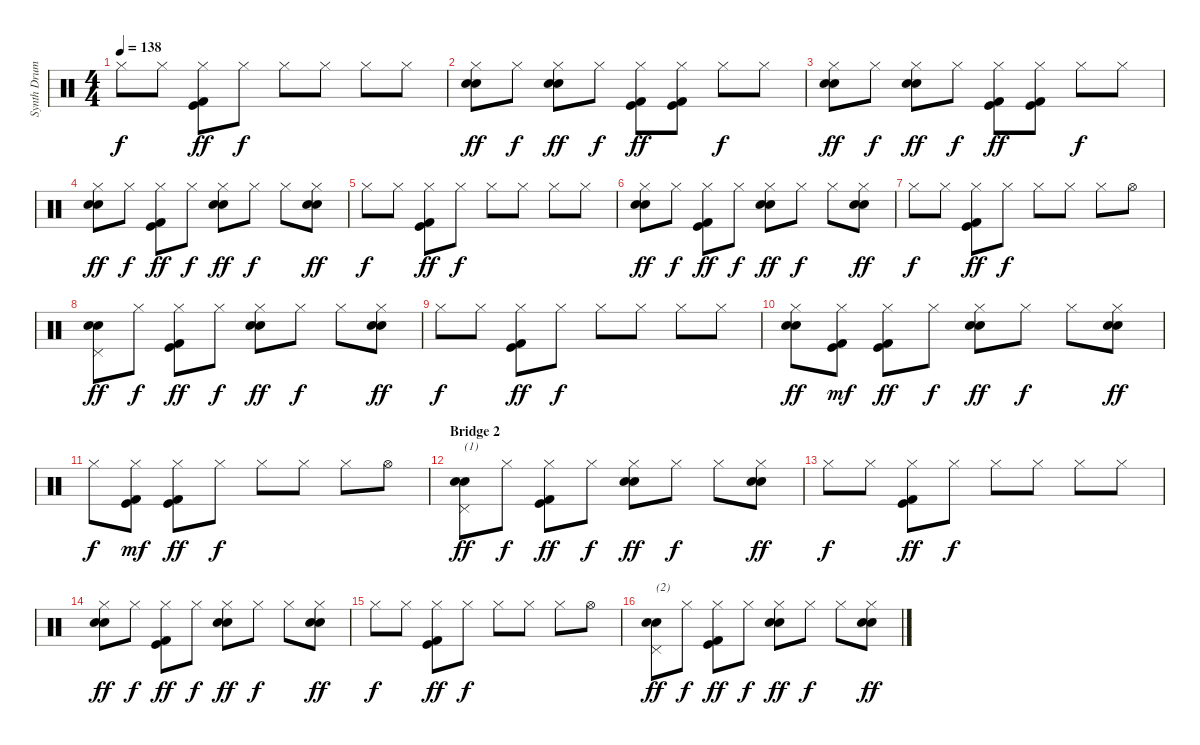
\track ("Synth Drums" "Synth Drum") {instrument percussion}
\staff {score}
\articulation defaults
\ts (4 4)
\tempo 138
\clef neutral
\ks c "Hi-Hat (closed)".8{dy f} "Hi-Hat (closed)".8
("Hi-Hat (closed)" "Kick (hit)" "Kick (hit) 2").8{dy ff} "Hi-Hat (closed)".8{dy f} "Hi-Hat (closed)".8 "Hi-Hat (closed)".8 "Hi-Hat (closed)".8 "Hi-Hat (closed)".8 |
("Hi-Hat (closed)" "Electric Snare (hit)" "Snare (hit) 2").8{dy ff} "Hi-Hat (closed)".8{dy f} ("Hi-Hat (closed)" "Electric Snare (hit)" "Snare (hit) 2").8{dy ff} "Hi-Hat (closed)".8{dy f} ("Hi-Hat (closed)" "Kick (hit)" "Kick (hit) 2").8{dy ff} ("Hi-Hat (closed)" "Kick (hit)" "Kick (hit) 2").8 "Hi-Hat (closed)".8{dy f} "Hi-Hat (closed)".8 |
("Hi-Hat (closed)" "Electric Snare (hit)" "Snare (hit) 2").8{dy ff} "Hi-Hat (closed)".8{dy f} ("Hi-Hat (closed)" "Electric Snare (hit)" "Snare (hit) 2").8{dy ff} "Hi-Hat (closed)".8{dy f} ("Hi-Hat (closed)" "Kick (hit)" "Kick (hit) 2").8{dy ff} ("Hi-Hat (closed)" "Kick (hit)" "Kick (hit) 2").8 "Hi-Hat (closed)".8{dy f} "Hi-Hat (closed)".8 |
("Hi-Hat (closed)" "Electric Snare (hit)" "Snare (hit) 2").8{dy ff} "Hi-Hat (closed)".8{dy f} ("Hi-Hat (closed)" "Kick (hit)" "Kick (hit) 2").8{dy ff} "Hi-Hat (closed)".8{dy f} ("Hi-Hat (closed)" "Electric Snare (hit)" "Snare (hit) 2").8{dy ff} "Hi-Hat (closed)".8{dy f} "Hi-Hat (closed)".8 ("Hi-Hat (closed)" "Electric Snare (hit)" "Snare (hit) 2").8{dy ff} |
"Hi-Hat (closed)".8{dy f} "Hi-Hat (closed)".8 ("Hi-Hat (closed)" "Kick (hit)" "Kick (hit) 2").8{dy ff} "Hi-Hat (closed)".8{dy f} "Hi-Hat (closed)".8 "Hi-Hat (closed)".8 "Hi-Hat (closed)".8 "Hi-Hat (closed)".8 |
("Hi-Hat (closed)" "Electric Snare (hit)" "Snare (hit) 2").8{dy ff} "Hi-Hat (closed)".8{dy f} ("Hi-Hat (closed)" "Kick (hit)" "Kick (hit) 2").8{dy ff} "Hi-Hat (closed)".8{dy f} ("Hi-Hat (closed)" "Electric Snare (hit)" "Snare (hit) 2").8{dy ff} "Hi-Hat (closed)".8{dy f} "Hi-Hat (closed)".8 ("Hi-Hat (closed)" "Electric Snare (hit)" "Snare (hit) 2").8{dy ff} |
"Hi-Hat (closed)".8{dy f} "Hi-Hat (closed)".8 ("Hi-Hat (closed)" "Kick (hit)" "Kick (hit) 2").8{dy ff} "Hi-Hat (closed)".8{dy f} "Hi-Hat (closed)".8 "Hi-Hat (closed)".8 "Hi-Hat (closed)".8 "Hi-Hat (open)".8 |
("Pedal Hi-Hat (hit)" "Electric Snare (hit)" "Snare (hit) 2").8{dy ff} "Hi-Hat (closed)".8{dy f} ("Hi-Hat (closed)" "Kick (hit)" "Kick (hit) 2").8{dy ff} "Hi-Hat (closed)".8{dy f} ("Hi-Hat (closed)" "Electric Snare (hit)" "Snare (hit) 2").8{dy ff} "Hi-Hat (closed)".8{dy f} "Hi-Hat (closed)".8 ("Hi-Hat (closed)" "Electric Snare (hit)" "Snare (hit) 2").8{dy ff} |
"Hi-Hat (closed)".8{dy f} "Hi-Hat (closed)".8 ("Hi-Hat (closed)" "Kick (hit)" "Kick (hit) 2").8{dy ff} "Hi-Hat (closed)".8{dy f} "Hi-Hat (closed)".8 "Hi-Hat (closed)".8 "Hi-Hat (closed)".8 "Hi-Hat (closed)".8 |
("Hi-Hat (closed)" "Electric Snare (hit)" "Snare (hit) 2").8{dy ff} ("Hi-Hat (closed)" "Kick (hit)" "Kick (hit) 2").8{dy mf} ("Hi-Hat (closed)" "Kick (hit)" "Kick (hit) 2").8{dy ff} "Hi-Hat (closed)".8{dy f} ("Hi-Hat (closed)" "Electric Snare (hit)" "Snare (hit) 2").8{dy ff} "Hi-Hat (closed)".8{dy f} "Hi-Hat (closed)".8 ("Hi-Hat (closed)" "Electric Snare (hit)" "Snare (hit) 2").8{dy ff} |
"Hi-Hat (closed)".8{dy f} ("Hi-Hat (closed)" "Kick (hit)" "Kick (hit) 2").8{dy mf} ("Hi-Hat (closed)" "Kick (hit)" "Kick (hit) 2").8{dy ff} "Hi-Hat (closed)".8{dy f} "Hi-Hat (closed)".8 "Hi-Hat (closed)".8 "Hi-Hat (closed)".8 "Hi-Hat (open)".8 |
\section ("" "Bridge 2")
("Pedal Hi-Hat (hit)" "Electric Snare (hit)" "Snare (hit) 2").8{txt "(1)" dy ff} "Hi-Hat (closed)".8{dy f} ("Hi-Hat (closed)" "Kick (hit)" "Kick (hit) 2").8{dy ff} "Hi-Hat (closed)".8{dy f} ("Hi-Hat (closed)" "Electric Snare (hit)" "Snare (hit) 2").8{dy ff} "Hi-Hat (closed)".8{dy f} "Hi-Hat (closed)".8 ("Hi-Hat (closed)" "Electric Snare (hit)" "Snare (hit) 2").8{dy ff} |
"Hi-Hat (closed)".8{dy f} "Hi-Hat (closed)".8 ("Hi-Hat (closed)" "Kick (hit)" "Kick (hit) 2").8{dy ff} "Hi-Hat (closed)".8{dy f} "Hi-Hat (closed)".8 "Hi-Hat (closed)".8 "Hi-Hat (closed)".8 "Hi-Hat (closed)".8 |
("Hi-Hat (closed)" "Electric Snare (hit)" "Snare (hit) 2").8{dy ff} "Hi-Hat (closed)".8{dy f} ("Hi-Hat (closed)" "Kick (hit)" "Kick (hit) 2").8{dy ff} "Hi-Hat (closed)".8{dy f} ("Hi-Hat (closed)" "Electric Snare (hit)" "Snare (hit) 2").8{dy ff} "Hi-Hat (closed)".8{dy f} "Hi-Hat (closed)".8 ("Hi-Hat (closed)" "Electric Snare (hit)" "Snare (hit) 2").8{dy ff} |
"Hi-Hat (closed)".8{dy f} "Hi-Hat (closed)".8 ("Hi-Hat (closed)" "Kick (hit)" "Kick (hit) 2").8{dy ff} "Hi-Hat (closed)".8{dy f} "Hi-Hat (closed)".8 "Hi-Hat (closed)".8 "Hi-Hat (closed)".8 "Hi-Hat (open)".8 |
("Pedal Hi-Hat (hit)" "Electric Snare (hit)" "Snare (hit) 2").8{txt "(2)" dy ff} "Hi-Hat (closed)".8{dy f} ("Hi-Hat (closed)" "Kick (hit)" "Kick (hit) 2").8{dy ff} "Hi-Hat (closed)".8{dy f} ("Hi-Hat (closed)" "Electric Snare (hit)" "Snare (hit) 2").8{dy ff} "Hi-Hat (closed)".8{dy f} "Hi-Hat (closed)".8 ("Hi-Hat (closed)" "Electric Snare (hit)" "Snare (hit) 2").8{dy ff}
